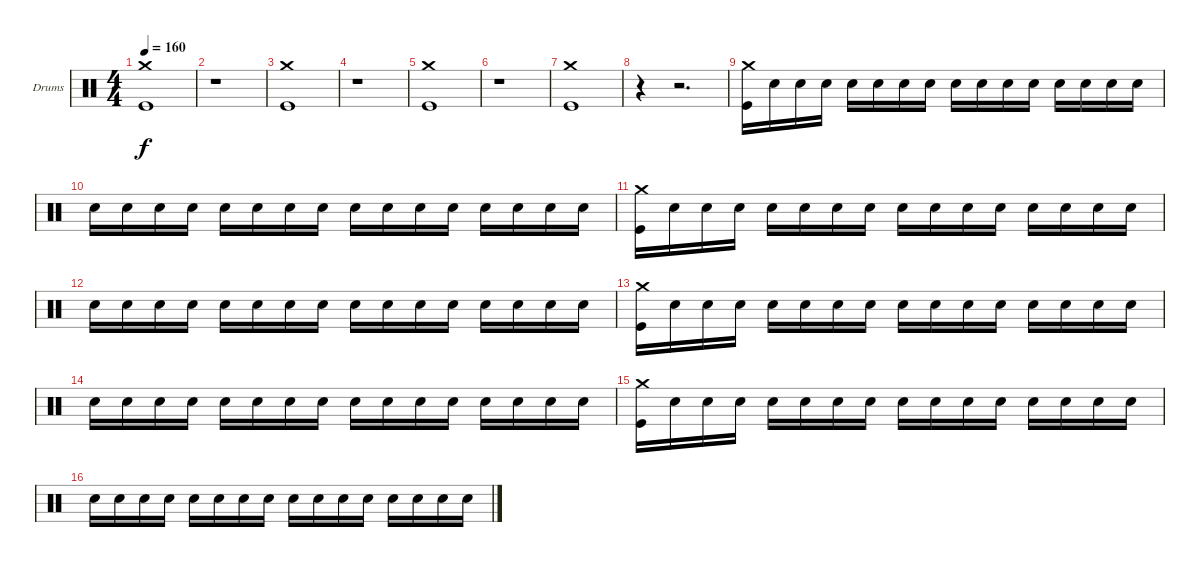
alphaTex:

\bracketExtendMode groupsimilarinstruments
\firstSystemTrackNameOrientation horizontal
\otherSystemsTrackNameOrientation horizontal
\track ("Drumkit" "Drums") {instrument percussion}
\staff {score}
\articulation defaults
\ts (4 4)
\beaming (8 2 2 2 2)
\tempo 160
\clef neutral
\ks c
("Crash medium (hit)" "Kick (hit)").1{dy f} |
r.1 |
("Crash medium (hit)" "Kick (hit)").1 |
r.1 |
("Crash medium (hit)" "Kick (hit)").1 |
r.1 |
("Crash medium (hit)" "Kick (hit)").1 |
r.4 r.2{d} |
("Crash medium (hit)" "Kick (hit)").16 "Snare (hit) 2".16 "Snare (hit) 2".16 "Snare (hit) 2".16 "Snare (hit) 2".16 "Snare (hit) 2".16 "Snare (hit) 2".16 "Snare (hit) 2".16 "Snare (hit) 2".16 "Snare (hit) 2".16 "Snare (hit) 2".16 "Snare (hit) 2".16 "Snare (hit) 2".16 "Snare (hit) 2".16 "Snare (hit) 2".16 "Snare (hit) 2".16 |
"Snare (hit) 2".16 "Snare (hit) 2".16 "Snare (hit) 2".16 "Snare (hit) 2".16 "Snare (hit) 2".16 "Snare (hit) 2".16 "Snare (hit) 2".16 "Snare (hit) 2".16 "Snare (hit) 2".16 "Snare (hit) 2".16 "Snare (hit) 2".16 "Snare (hit) 2".16 "Snare (hit) 2".16 "Snare (hit) 2".16 "Snare (hit) 2".16 "Snare (hit) 2".16 |
("Crash medium (hit)" "Kick (hit)").16 "Snare (hit) 2".16 "Snare (hit) 2".16 "Snare (hit) 2".16 "Snare (hit) 2".16 "Snare (hit) 2".16 "Snare (hit) 2".16 "Snare (hit) 2".16 "Snare (hit) 2".16 "Snare (hit) 2".16 "Snare (hit) 2".16 "Snare (hit) 2".16 "Snare (hit) 2".16 "Snare (hit) 2".16 "Snare (hit) 2".16 "Snare (hit) 2".16 |
"Snare (hit) 2".16 "Snare (hit) 2".16 "Snare (hit) 2".16 "Snare (hit) 2".16 "Snare (hit) 2".16 "Snare (hit) 2".16 "Snare (hit) 2".16 "Snare (hit) 2".16 "Snare (hit) 2".16 "Snare (hit) 2".16 "Snare (hit) 2".16 "Snare (hit) 2".16 "Snare (hit) 2".16 "Snare (hit) 2".16 "Snare (hit) 2".16 "Snare (hit) 2".16 |
("Crash medium (hit)" "Kick (hit)").16 "Snare (hit) 2".16 "Snare (hit) 2".16 "Snare (hit) 2".16 "Snare (hit) 2".16 "Snare (hit) 2".16 "Snare (hit) 2".16 "Snare (hit) 2".16 "Snare (hit) 2".16 "Snare (hit) 2".16 "Snare (hit) 2".16 "Snare (hit) 2".16 "Snare (hit) 2".16 "Snare (hit) 2".16 "Snare (hit) 2".16 "Snare (hit) 2".16 |
"Snare (hit) 2".16 "Snare (hit) 2".16 "Snare (hit) 2".16 "Snare (hit) 2".16 "Snare (hit) 2".16 "Snare (hit) 2".16 "Snare (hit) 2".16 "Snare (hit) 2".16 "Snare (hit) 2".16 "Snare (hit) 2".16 "Snare (hit) 2".16 "Snare (hit) 2".16 "Snare (hit) 2".16 "Snare (hit) 2".16 "Snare (hit) 2".16 "Snare (hit) 2".16 |
("Crash medium (hit)" "Kick (hit)").16 "Snare (hit) 2".16 "Snare (hit) 2".16 "Snare (hit) 2".16 "Snare (hit) 2".16 "Snare (hit) 2".16 "Snare (hit) 2".16 "Snare (hit) 2".16 "Snare (hit) 2".16 "Snare (hit) 2".16 "Snare (hit) 2".16 "Snare (hit) 2".16 "Snare (hit) 2".16 "Snare (hit) 2".16 "Snare (hit) 2".16 "Snare (hit) 2".16 |
"Snare (hit) 2".16 "Snare (hit) 2".16 "Snare (hit) 2".16 "Snare (hit) 2".16 "Snare (hit) 2".16 "Snare (hit) 2".16 "Snare (hit) 2".16 "Snare (hit) 2".16 "Snare (hit) 2".16 "Snare (hit) 2".16 "Snare (hit) 2".16 "Snare (hit) 2".16 "Snare (hit) 2".16 "Snare (hit) 2".16 "Snare (hit) 2".16 "Snare (hit) 2".16
